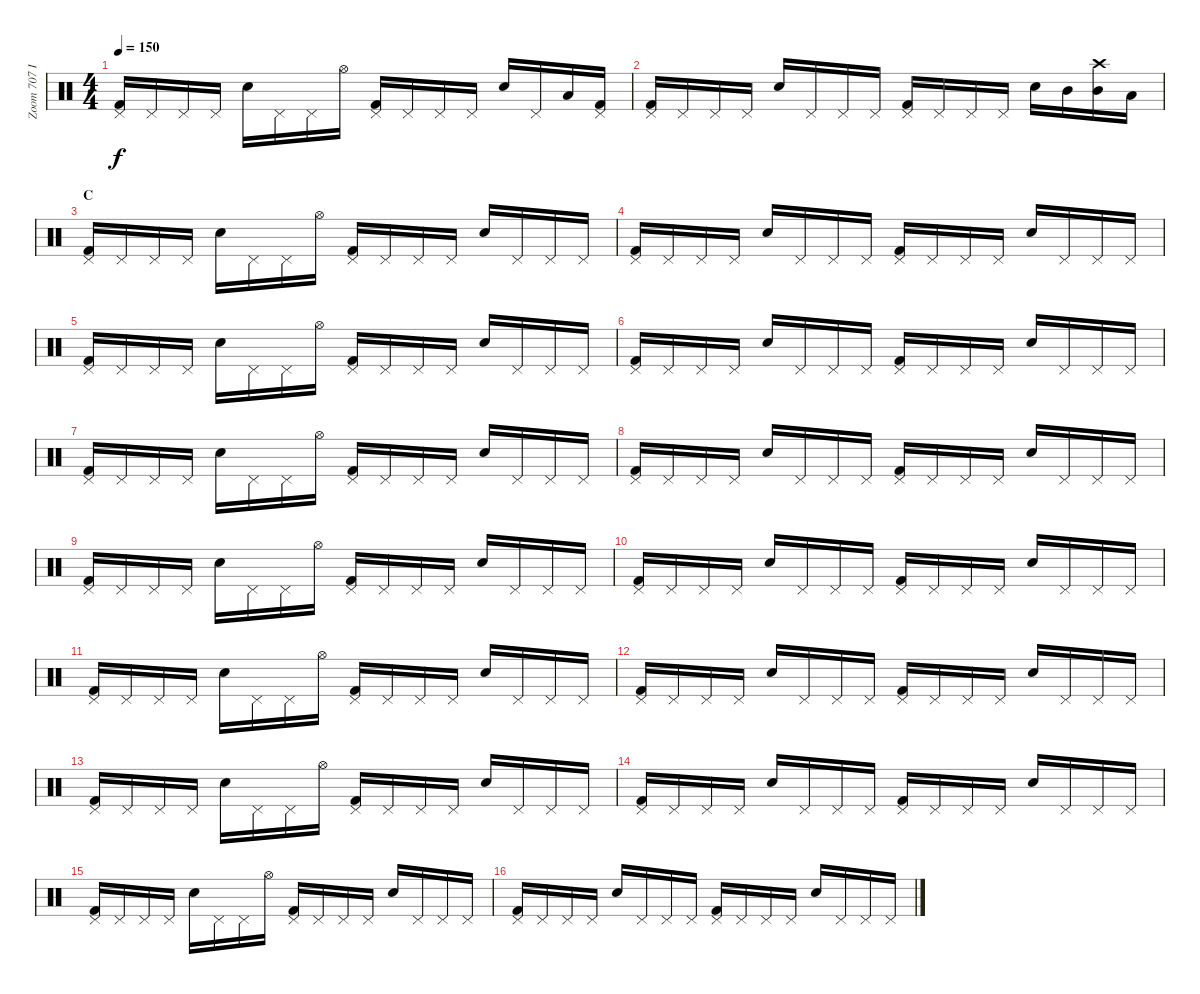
\track ("Zoom 707 II" "Zoom 707 I") {instrument percussion}
\staff {score}
\articulation defaults
\ts (4 4)
\tempo 150
\clef neutral
\ks c
("Pedal Hi-Hat (hit)" "Kick (hit) 2").16{dy f} "Pedal Hi-Hat (hit)".16 "Pedal Hi-Hat (hit)".16 "Pedal Hi-Hat (hit)".16 "Snare (hit) 2".16 "Pedal Hi-Hat (hit)".16 "Pedal Hi-Hat (hit)".16 "Hi-Hat (open)".16 ("Pedal Hi-Hat (hit)" "Kick (hit) 2").16 "Pedal Hi-Hat (hit)".16 "Pedal Hi-Hat (hit)".16 "Pedal Hi-Hat (hit)".16 "Snare (hit) 2".16 "Pedal Hi-Hat (hit)".16 "Low Tom (hit)".16 ("Pedal Hi-Hat (hit)" "Kick (hit) 2").16 |
("Pedal Hi-Hat (hit)" "Kick (hit) 2").16 "Pedal Hi-Hat (hit)".16 "Pedal Hi-Hat (hit)".16 "Pedal Hi-Hat (hit)".16 "Snare (hit) 2".16 "Pedal Hi-Hat (hit)".16 "Pedal Hi-Hat (hit)".16 "Pedal Hi-Hat (hit)".16 ("Pedal Hi-Hat (hit)" "Kick (hit) 2").16 "Pedal Hi-Hat (hit)".16 "Pedal Hi-Hat (hit)".16 "Pedal Hi-Hat (hit)".16 "Snare (hit) 2".16 "Mid Tom (hit)".16 ("Crash high (hit)" "Mid Tom (hit)").16 "Low Tom (hit)".16 |
\section ("" "C")
("Pedal Hi-Hat (hit)" "Kick (hit) 2").16 "Pedal Hi-Hat (hit)".16 "Pedal Hi-Hat (hit)".16 "Pedal Hi-Hat (hit)".16 "Snare (hit) 2".16 "Pedal Hi-Hat (hit)".16 "Pedal Hi-Hat (hit)".16 "Hi-Hat (open)".16 ("Pedal Hi-Hat (hit)" "Kick (hit) 2").16 "Pedal Hi-Hat (hit)".16 "Pedal Hi-Hat (hit)".16 "Pedal Hi-Hat (hit)".16 "Snare (hit) 2".16 "Pedal Hi-Hat (hit)".16 "Pedal Hi-Hat (hit)".16 "Pedal Hi-Hat (hit)".16 |
("Pedal Hi-Hat (hit)" "Kick (hit) 2").16 "Pedal Hi-Hat (hit)".16 "Pedal Hi-Hat (hit)".16 "Pedal Hi-Hat (hit)".16 "Snare (hit) 2".16 "Pedal Hi-Hat (hit)".16 "Pedal Hi-Hat (hit)".16 "Pedal Hi-Hat (hit)".16 ("Pedal Hi-Hat (hit)" "Kick (hit) 2").16 "Pedal Hi-Hat (hit)".16 "Pedal Hi-Hat (hit)".16 "Pedal Hi-Hat (hit)".16 "Snare (hit) 2".16 "Pedal Hi-Hat (hit)".16 "Pedal Hi-Hat (hit)".16 "Pedal Hi-Hat (hit)".16 |
("Pedal Hi-Hat (hit)" "Kick (hit) 2").16 "Pedal Hi-Hat (hit)".16 "Pedal Hi-Hat (hit)".16 "Pedal Hi-Hat (hit)".16 "Snare (hit) 2".16 "Pedal Hi-Hat (hit)".16 "Pedal Hi-Hat (hit)".16 "Hi-Hat (open)".16 ("Pedal Hi-Hat (hit)" "Kick (hit) 2").16 "Pedal Hi-Hat (hit)".16 "Pedal Hi-Hat (hit)".16 "Pedal Hi-Hat (hit)".16 "Snare (hit) 2".16 "Pedal Hi-Hat (hit)".16 "Pedal Hi-Hat (hit)".16 "Pedal Hi-Hat (hit)".16 |
("Pedal Hi-Hat (hit)" "Kick (hit) 2").16 "Pedal Hi-Hat (hit)".16 "Pedal Hi-Hat (hit)".16 "Pedal Hi-Hat (hit)".16 "Snare (hit) 2".16 "Pedal Hi-Hat (hit)".16 "Pedal Hi-Hat (hit)".16 "Pedal Hi-Hat (hit)".16 ("Pedal Hi-Hat (hit)" "Kick (hit) 2").16 "Pedal Hi-Hat (hit)".16 "Pedal Hi-Hat (hit)".16 "Pedal Hi-Hat (hit)".16 "Snare (hit) 2".16 "Pedal Hi-Hat (hit)".16 "Pedal Hi-Hat (hit)".16 "Pedal Hi-Hat (hit)".16 |
("Pedal Hi-Hat (hit)" "Kick (hit) 2").16 "Pedal Hi-Hat (hit)".16 "Pedal Hi-Hat (hit)".16 "Pedal Hi-Hat (hit)".16 "Snare (hit) 2".16 "Pedal Hi-Hat (hit)".16 "Pedal Hi-Hat (hit)".16 "Hi-Hat (open)".16 ("Pedal Hi-Hat (hit)" "Kick (hit) 2").16 "Pedal Hi-Hat (hit)".16 "Pedal Hi-Hat (hit)".16 "Pedal Hi-Hat (hit)".16 "Snare (hit) 2".16 "Pedal Hi-Hat (hit)".16 "Pedal Hi-Hat (hit)".16 "Pedal Hi-Hat (hit)".16 |
("Pedal Hi-Hat (hit)" "Kick (hit) 2").16 "Pedal Hi-Hat (hit)".16 "Pedal Hi-Hat (hit)".16 "Pedal Hi-Hat (hit)".16 "Snare (hit) 2".16 "Pedal Hi-Hat (hit)".16 "Pedal Hi-Hat (hit)".16 "Pedal Hi-Hat (hit)".16 ("Pedal Hi-Hat (hit)" "Kick (hit) 2").16 "Pedal Hi-Hat (hit)".16 "Pedal Hi-Hat (hit)".16 "Pedal Hi-Hat (hit)".16 "Snare (hit) 2".16 "Pedal Hi-Hat (hit)".16 "Pedal Hi-Hat (hit)".16 "Pedal Hi-Hat (hit)".16 |
("Pedal Hi-Hat (hit)" "Kick (hit) 2").16 "Pedal Hi-Hat (hit)".16 "Pedal Hi-Hat (hit)".16 "Pedal Hi-Hat (hit)".16 "Snare (hit) 2".16 "Pedal Hi-Hat (hit)".16 "Pedal Hi-Hat (hit)".16 "Hi-Hat (open)".16 ("Pedal Hi-Hat (hit)" "Kick (hit) 2").16 "Pedal Hi-Hat (hit)".16 "Pedal Hi-Hat (hit)".16 "Pedal Hi-Hat (hit)".16 "Snare (hit) 2".16 "Pedal Hi-Hat (hit)".16 "Pedal Hi-Hat (hit)".16 "Pedal Hi-Hat (hit)".16 |
("Pedal Hi-Hat (hit)" "Kick (hit) 2").16 "Pedal Hi-Hat (hit)".16 "Pedal Hi-Hat (hit)".16 "Pedal Hi-Hat (hit)".16 "Snare (hit) 2".16 "Pedal Hi-Hat (hit)".16 "Pedal Hi-Hat (hit)".16 "Pedal Hi-Hat (hit)".16 ("Pedal Hi-Hat (hit)" "Kick (hit) 2").16 "Pedal Hi-Hat (hit)".16 "Pedal Hi-Hat (hit)".16 "Pedal Hi-Hat (hit)".16 "Snare (hit) 2".16 "Pedal Hi-Hat (hit)".16 "Pedal Hi-Hat (hit)".16 "Pedal Hi-Hat (hit)".16 |
("Pedal Hi-Hat (hit)" "Kick (hit) 2").16 "Pedal Hi-Hat (hit)".16 "Pedal Hi-Hat (hit)".16 "Pedal Hi-Hat (hit)".16 "Snare (hit) 2".16 "Pedal Hi-Hat (hit)".16 "Pedal Hi-Hat (hit)".16 "Hi-Hat (open)".16 ("Pedal Hi-Hat (hit)" "Kick (hit) 2").16 "Pedal Hi-Hat (hit)".16 "Pedal Hi-Hat (hit)".16 "Pedal Hi-Hat (hit)".16 "Snare (hit) 2".16 "Pedal Hi-Hat (hit)".16 "Pedal Hi-Hat (hit)".16 "Pedal Hi-Hat (hit)".16 |
("Pedal Hi-Hat (hit)" "Kick (hit) 2").16 "Pedal Hi-Hat (hit)".16 "Pedal Hi-Hat (hit)".16 "Pedal Hi-Hat (hit)".16 "Snare (hit) 2".16 "Pedal Hi-Hat (hit)".16 "Pedal Hi-Hat (hit)".16 "Pedal Hi-Hat (hit)".16 ("Pedal Hi-Hat (hit)" "Kick (hit) 2").16 "Pedal Hi-Hat (hit)".16 "Pedal Hi-Hat (hit)".16 "Pedal Hi-Hat (hit)".16 "Snare (hit) 2".16 "Pedal Hi-Hat (hit)".16 "Pedal Hi-Hat (hit)".16 "Pedal Hi-Hat (hit)".16 |
("Pedal Hi-Hat (hit)" "Kick (hit) 2").16 "Pedal Hi-Hat (hit)".16 "Pedal Hi-Hat (hit)".16 "Pedal Hi-Hat (hit)".16 "Snare (hit) 2".16 "Pedal Hi-Hat (hit)".16 "Pedal Hi-Hat (hit)".16 "Hi-Hat (open)".16 ("Pedal Hi-Hat (hit)" "Kick (hit) 2").16 "Pedal Hi-Hat (hit)".16 "Pedal Hi-Hat (hit)".16 "Pedal Hi-Hat (hit)".16 "Snare (hit) 2".16 "Pedal Hi-Hat (hit)".16 "Pedal Hi-Hat (hit)".16 "Pedal Hi-Hat (hit)".16 |
("Pedal Hi-Hat (hit)" "Kick (hit) 2").16 "Pedal Hi-Hat (hit)".16 "Pedal Hi-Hat (hit)".16 "Pedal Hi-Hat (hit)".16 "Snare (hit) 2".16 "Pedal Hi-Hat (hit)".16 "Pedal Hi-Hat (hit)".16 "Pedal Hi-Hat (hit)".16 ("Pedal Hi-Hat (hit)" "Kick (hit) 2").16 "Pedal Hi-Hat (hit)".16 "Pedal Hi-Hat (hit)".16 "Pedal Hi-Hat (hit)".16 "Snare (hit) 2".16 "Pedal Hi-Hat (hit)".16 "Pedal Hi-Hat (hit)".16 "Pedal Hi-Hat (hit)".16 |
("Pedal Hi-Hat (hit)" "Kick (hit) 2").16 "Pedal Hi-Hat (hit)".16 "Pedal Hi-Hat (hit)".16 "Pedal Hi-Hat (hit)".16 "Snare (hit) 2".16 "Pedal Hi-Hat (hit)".16 "Pedal Hi-Hat (hit)".16 "Hi-Hat (open)".16 ("Pedal Hi-Hat (hit)" "Kick (hit) 2").16 "Pedal Hi-Hat (hit)".16 "Pedal Hi-Hat (hit)".16 "Pedal Hi-Hat (hit)".16 "Snare (hit) 2".16 "Pedal Hi-Hat (hit)".16 "Pedal Hi-Hat (hit)".16 "Pedal Hi-Hat (hit)".16 |
("Pedal Hi-Hat (hit)" "Kick (hit) 2").16 "Pedal Hi-Hat (hit)".16 "Pedal Hi-Hat (hit)".16 "Pedal Hi-Hat (hit)".16 "Snare (hit) 2".16 "Pedal Hi-Hat (hit)".16 "Pedal Hi-Hat (hit)".16 "Pedal Hi-Hat (hit)".16 ("Pedal Hi-Hat (hit)" "Kick (hit) 2").16 "Pedal Hi-Hat (hit)".16 "Pedal Hi-Hat (hit)".16 "Pedal Hi-Hat (hit)".16 "Snare (hit) 2".16 "Pedal Hi-Hat (hit)".16 "Pedal Hi-Hat (hit)".16 "Pedal Hi-Hat (hit)".16
